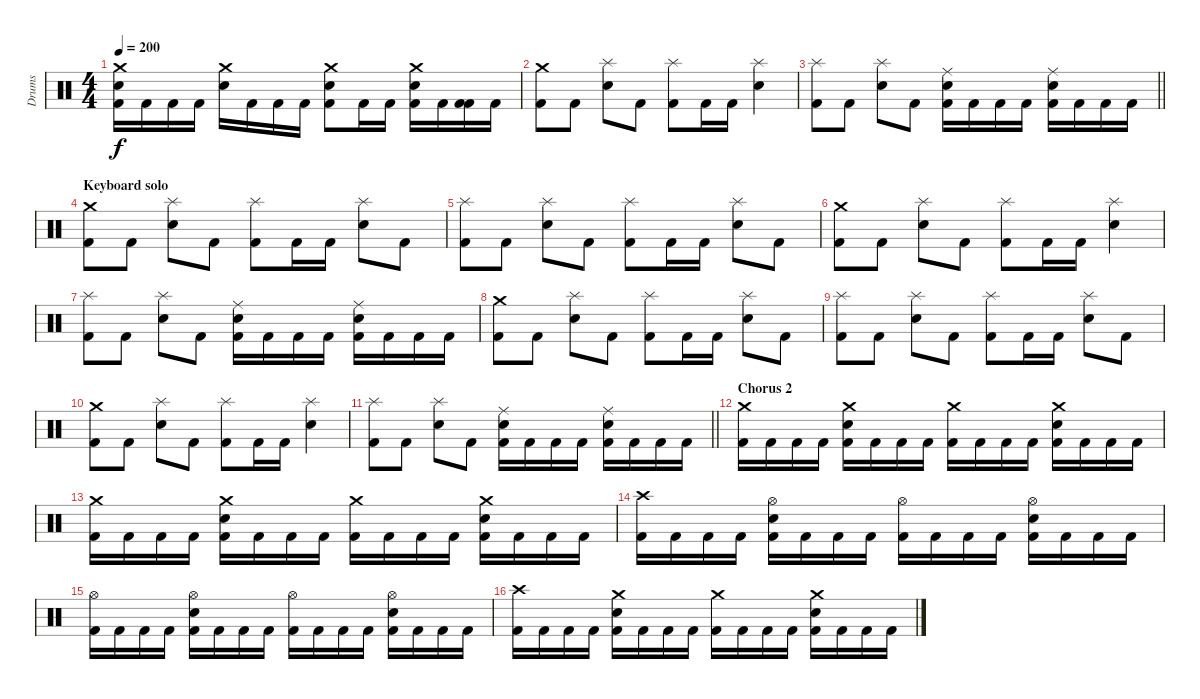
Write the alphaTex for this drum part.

\track ("Drums" "Drums") {instrument percussion}
\staff {score}
\articulation defaults
\ts (4 4)
\tempo 200
\clef neutral
\ks c
("Crash medium (hit)" "Electric Snare (hit)" "Kick (hit) 2").16{dy f} "Kick (hit) 2".16 "Kick (hit) 2".16 "Kick (hit) 2".16 ("Crash medium (hit)" "Electric Snare (hit)").16 "Kick (hit) 2".16 "Kick (hit) 2".16 "Kick (hit) 2".16 ("Crash medium (hit)" "Electric Snare (hit)" "Kick (hit) 2").8 "Kick (hit) 2".16 "Kick (hit) 2".16 ("Crash medium (hit)" "Electric Snare (hit)" "Kick (hit) 2").16 "Kick (hit) 2".16 ("Kick (hit) 2" "Kick (hit) 2").16 "Kick (hit) 2".16 |
("Crash medium (hit)" "Kick (hit) 2").8 "Kick (hit) 2".8 ("Splash (hit)" "Electric Snare (hit)").8 "Kick (hit) 2".8 ("Splash (hit)" "Kick (hit) 2").8 "Kick (hit) 2".16 "Kick (hit) 2".16 ("Splash (hit)" "Electric Snare (hit)").4 |
\barLineRight lightlight
("Splash (hit)" "Kick (hit) 2").8 "Kick (hit) 2".8 ("Splash (hit)" "Electric Snare (hit)").8 "Kick (hit) 2".8 ("Ride (middle)" "Electric Snare (hit)" "Kick (hit) 2").16 "Kick (hit) 2".16 "Kick (hit) 2".16 "Kick (hit) 2".16 ("Ride (middle)" "Electric Snare (hit)" "Kick (hit) 2").16 "Kick (hit) 2".16 "Kick (hit) 2".16 "Kick (hit) 2".16 |
\section ("" "Keyboard solo")
("Crash medium (hit)" "Kick (hit) 2").8 "Kick (hit) 2".8 ("Splash (hit)" "Electric Snare (hit)").8 "Kick (hit) 2".8 ("Splash (hit)" "Kick (hit) 2").8 "Kick (hit) 2".16 "Kick (hit) 2".16 ("Splash (hit)" "Electric Snare (hit)").8 "Kick (hit) 2".8 |
("Splash (hit)" "Kick (hit) 2").8 "Kick (hit) 2".8 ("Splash (hit)" "Electric Snare (hit)").8 "Kick (hit) 2".8 ("Splash (hit)" "Kick (hit) 2").8 "Kick (hit) 2".16 "Kick (hit) 2".16 ("Splash (hit)" "Electric Snare (hit)").8 "Kick (hit) 2".8 |
("Crash medium (hit)" "Kick (hit) 2").8 "Kick (hit) 2".8 ("Splash (hit)" "Electric Snare (hit)").8 "Kick (hit) 2".8 ("Splash (hit)" "Kick (hit) 2").8 "Kick (hit) 2".16 "Kick (hit) 2".16 ("Splash (hit)" "Electric Snare (hit)").4 |
("Splash (hit)" "Kick (hit) 2").8 "Kick (hit) 2".8 ("Splash (hit)" "Electric Snare (hit)").8 "Kick (hit) 2".8 ("Ride (middle)" "Electric Snare (hit)" "Kick (hit) 2").16 "Kick (hit) 2".16 "Kick (hit) 2".16 "Kick (hit) 2".16 ("Ride (middle)" "Electric Snare (hit)" "Kick (hit) 2").16 "Kick (hit) 2".16 "Kick (hit) 2".16 "Kick (hit) 2".16 |
("Crash medium (hit)" "Kick (hit) 2").8 "Kick (hit) 2".8 ("Splash (hit)" "Electric Snare (hit)").8 "Kick (hit) 2".8 ("Splash (hit)" "Kick (hit) 2").8 "Kick (hit) 2".16 "Kick (hit) 2".16 ("Splash (hit)" "Electric Snare (hit)").8 "Kick (hit) 2".8 |
("Splash (hit)" "Kick (hit) 2").8 "Kick (hit) 2".8 ("Splash (hit)" "Electric Snare (hit)").8 "Kick (hit) 2".8 ("Splash (hit)" "Kick (hit) 2").8 "Kick (hit) 2".16 "Kick (hit) 2".16 ("Splash (hit)" "Electric Snare (hit)").8 "Kick (hit) 2".8 |
("Crash medium (hit)" "Kick (hit) 2").8 "Kick (hit) 2".8 ("Splash (hit)" "Electric Snare (hit)").8 "Kick (hit) 2".8 ("Splash (hit)" "Kick (hit) 2").8 "Kick (hit) 2".16 "Kick (hit) 2".16 ("Splash (hit)" "Electric Snare (hit)").4 |
\barLineRight lightlight
("Splash (hit)" "Kick (hit) 2").8 "Kick (hit) 2".8 ("Splash (hit)" "Electric Snare (hit)").8 "Kick (hit) 2".8 ("Ride (middle)" "Electric Snare (hit)" "Kick (hit) 2").16 "Kick (hit) 2".16 "Kick (hit) 2".16 "Kick (hit) 2".16 ("Ride (middle)" "Electric Snare (hit)" "Kick (hit) 2").16 "Kick (hit) 2".16 "Kick (hit) 2".16 "Kick (hit) 2".16 |
\section ("" "Chorus 2 ")
("Crash medium (hit)" "Kick (hit) 2").16 "Kick (hit) 2".16 "Kick (hit) 2".16 "Kick (hit) 2".16 ("Crash medium (hit)" "Electric Snare (hit)" "Kick (hit) 2").16 "Kick (hit) 2".16 "Kick (hit) 2".16 "Kick (hit) 2".16 ("Crash medium (hit)" "Kick (hit) 2").16 "Kick (hit) 2".16 "Kick (hit) 2".16 "Kick (hit) 2".16 ("Crash medium (hit)" "Electric Snare (hit)" "Kick (hit) 2").16 "Kick (hit) 2".16 "Kick (hit) 2".16 "Kick (hit) 2".16 |
("Crash medium (hit)" "Kick (hit) 2").16 "Kick (hit) 2".16 "Kick (hit) 2".16 "Kick (hit) 2".16 ("Crash medium (hit)" "Electric Snare (hit)" "Kick (hit) 2").16 "Kick (hit) 2".16 "Kick (hit) 2".16 "Kick (hit) 2".16 ("Crash medium (hit)" "Kick (hit) 2").16 "Kick (hit) 2".16 "Kick (hit) 2".16 "Kick (hit) 2".16 ("Crash medium (hit)" "Electric Snare (hit)" "Kick (hit) 2").16 "Kick (hit) 2".16 "Kick (hit) 2".16 "Kick (hit) 2".16 |
("Crash high (hit)" "Kick (hit) 2").16 "Kick (hit) 2".16 "Kick (hit) 2".16 "Kick (hit) 2".16 ("Hi-Hat (open)" "Electric Snare (hit)" "Kick (hit) 2").16 "Kick (hit) 2".16 "Kick (hit) 2".16 "Kick (hit) 2".16 ("Hi-Hat (open)" "Kick (hit) 2").16 "Kick (hit) 2".16 "Kick (hit) 2".16 "Kick (hit) 2".16 ("Hi-Hat (open)" "Electric Snare (hit)" "Kick (hit) 2").16 "Kick (hit) 2".16 "Kick (hit) 2".16 "Kick (hit) 2".16 |
("Hi-Hat (open)" "Kick (hit) 2").16 "Kick (hit) 2".16 "Kick (hit) 2".16 "Kick (hit) 2".16 ("Hi-Hat (open)" "Electric Snare (hit)" "Kick (hit) 2").16 "Kick (hit) 2".16 "Kick (hit) 2".16 "Kick (hit) 2".16 ("Hi-Hat (open)" "Kick (hit) 2").16 "Kick (hit) 2".16 "Kick (hit) 2".16 "Kick (hit) 2".16 ("Hi-Hat (open)" "Electric Snare (hit)" "Kick (hit) 2").16 "Kick (hit) 2".16 "Kick (hit) 2".16 "Kick (hit) 2".16 |
("Crash high (hit)" "Kick (hit) 2").16 "Kick (hit) 2".16 "Kick (hit) 2".16 "Kick (hit) 2".16 ("Crash medium (hit)" "Electric Snare (hit)" "Kick (hit) 2").16 "Kick (hit) 2".16 "Kick (hit) 2".16 "Kick (hit) 2".16 ("Crash medium (hit)" "Kick (hit) 2").16 "Kick (hit) 2".16 "Kick (hit) 2".16 "Kick (hit) 2".16 ("Crash medium (hit)" "Electric Snare (hit)" "Kick (hit) 2").16 "Kick (hit) 2".16 "Kick (hit) 2".16 "Kick (hit) 2".16
